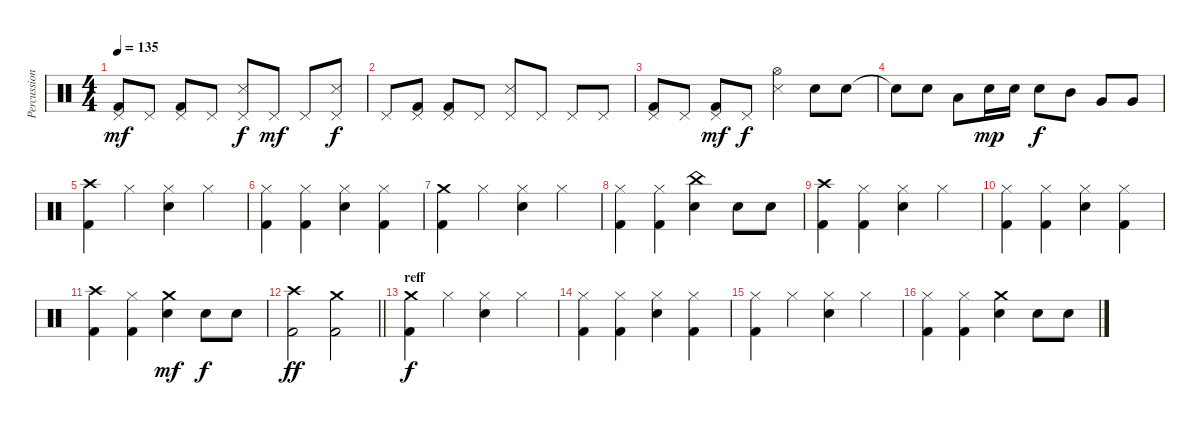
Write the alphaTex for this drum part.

\track ("Percussion" "Percussion") {instrument percussion}
\staff {score}
\articulation defaults
\ts (4 4)
\tempo 135
\clef neutral
\ks c
("Pedal Hi-Hat (hit)" "Kick (hit) 2").8{dy mf} "Pedal Hi-Hat (hit)".8 ("Pedal Hi-Hat (hit)" "Kick (hit) 2").8 "Pedal Hi-Hat (hit)".8 ("Pedal Hi-Hat (hit)" "Snare (side stick) 3").8{dy f} "Pedal Hi-Hat (hit)".8{dy mf} "Pedal Hi-Hat (hit)".8 ("Pedal Hi-Hat (hit)" "Snare (side stick) 3").8{dy f} |
"Pedal Hi-Hat (hit)".8 ("Pedal Hi-Hat (hit)" "Kick (hit) 2").8 ("Pedal Hi-Hat (hit)" "Kick (hit) 2").8 "Pedal Hi-Hat (hit)".8 ("Pedal Hi-Hat (hit)" "Snare (side stick) 3").8 "Pedal Hi-Hat (hit)".8 "Pedal Hi-Hat (hit)".8 "Pedal Hi-Hat (hit)".8 |
("Pedal Hi-Hat (hit)" "Kick (hit) 2").8 "Pedal Hi-Hat (hit)".8 ("Pedal Hi-Hat (hit)" "Kick (hit) 2").8{dy mf} "Pedal Hi-Hat (hit)".8{dy f} ("Hi-Hat (open)" "Snare (side stick) 3").4 "Electric Snare (hit)".8 "Electric Snare (hit)".8 |
"Snare (hit)"{t}.8 "Electric Snare (hit)".8 "Low Tom (hit)".8 "Electric Snare (hit)".16{dy mp} "Electric Snare (hit)".16 "Electric Snare (hit)".8{dy f} "Mid Tom (hit)".8 "Very Low Tom (hit)".8 "Very Low Tom (hit)".8 |
("Crash high (hit)" "Kick (hit) 2").4 "Hi-Hat (closed)".4 ("Hi-Hat (closed)" "Electric Snare (hit)").4 "Hi-Hat (closed)".4 |
("Hi-Hat (closed)" "Kick (hit) 2").4 ("Hi-Hat (closed)" "Kick (hit) 2").4 ("Hi-Hat (closed)" "Electric Snare (hit)").4 ("Hi-Hat (closed)" "Kick (hit) 2").4 |
("Crash medium (hit)" "Kick (hit) 2").4 "Hi-Hat (closed)".4 ("Hi-Hat (closed)" "Electric Snare (hit)").4 "Hi-Hat (closed)".4 |
("Hi-Hat (closed)" "Kick (hit) 2").4 ("Hi-Hat (closed)" "Kick (hit) 2").4 ("China (hit)" "Electric Snare (hit)").4 "Electric Snare (hit)".8 "Electric Snare (hit)".8 |
("Crash high (hit)" "Kick (hit) 2").4 ("Hi-Hat (closed)" "Kick (hit) 2").4 ("Hi-Hat (closed)" "Electric Snare (hit)").4 "Hi-Hat (closed)".4 |
("Hi-Hat (closed)" "Kick (hit) 2").4 ("Hi-Hat (closed)" "Kick (hit) 2").4 ("Hi-Hat (closed)" "Electric Snare (hit)").4 ("Hi-Hat (closed)" "Kick (hit) 2").4 |
("Crash high (hit)" "Kick (hit) 2").4 ("Hi-Hat (closed)" "Kick (hit) 2").4 ("Crash medium (hit)" "Electric Snare (hit)").4{dy mf} "Electric Snare (hit)".8{dy f} "Electric Snare (hit)".8 |
\barLineRight lightlight
("Crash high (hit)" "Kick (hit) 2").2{dy ff} ("Crash medium (hit)" "Kick (hit) 2").2 |
\section ("" "reff")
("Crash medium (hit)" "Kick (hit) 2").4{dy f} "Hi-Hat (closed)".4 ("Hi-Hat (closed)" "Electric Snare (hit)").4 "Hi-Hat (closed)".4 |
("Hi-Hat (closed)" "Kick (hit) 2").4 ("Hi-Hat (closed)" "Kick (hit) 2").4 ("Hi-Hat (closed)" "Electric Snare (hit)").4 ("Hi-Hat (closed)" "Kick (hit) 2").4 |
("Hi-Hat (closed)" "Kick (hit) 2").4 "Hi-Hat (closed)".4 ("Hi-Hat (closed)" "Electric Snare (hit)").4 "Hi-Hat (closed)".4 |
("Hi-Hat (closed)" "Kick (hit) 2").4 ("Hi-Hat (closed)" "Kick (hit) 2").4 ("Crash medium (hit)" "Electric Snare (hit)").4 "Electric Snare (hit)".8 "Electric Snare (hit)".8
